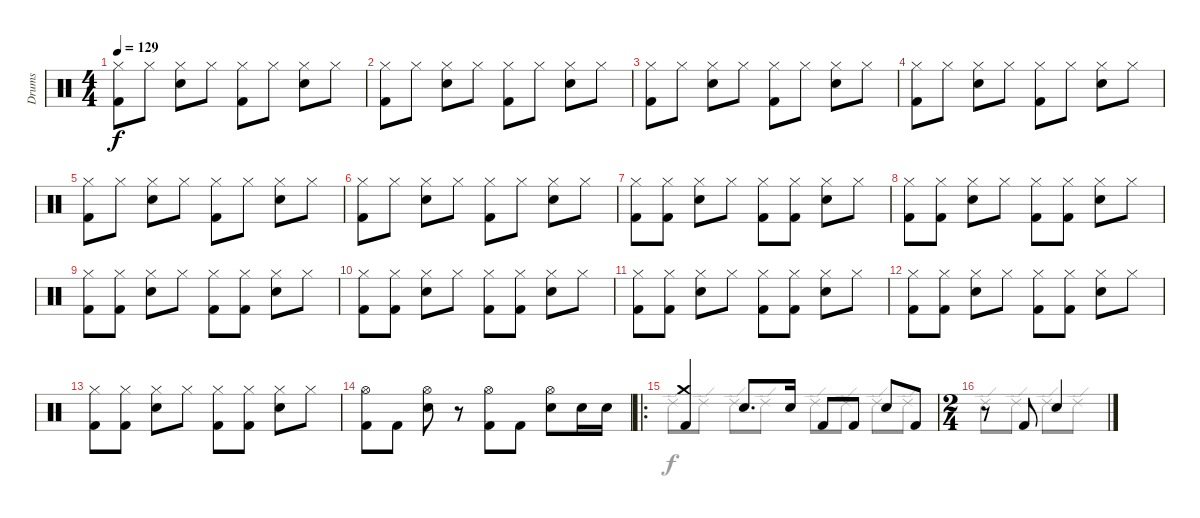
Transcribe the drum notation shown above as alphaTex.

\track ("Drums" "Drums") {instrument percussion}
\staff {score}
\articulation defaults
\voice
\ts (4 4)
\tempo 129
\clef neutral
\ks c
("Hi-Hat (closed)" "Kick (hit) 2").8{dy f} "Hi-Hat (closed)".8 ("Hi-Hat (closed)" "Snare (hit) 2").8 "Hi-Hat (closed)".8 ("Hi-Hat (closed)" "Kick (hit) 2").8 "Hi-Hat (closed)".8 ("Hi-Hat (closed)" "Snare (hit) 2").8 "Hi-Hat (closed)".8 |
("Hi-Hat (closed)" "Kick (hit) 2").8 "Hi-Hat (closed)".8 ("Hi-Hat (closed)" "Snare (hit) 2").8 "Hi-Hat (closed)".8 ("Hi-Hat (closed)" "Kick (hit) 2").8 "Hi-Hat (closed)".8 ("Hi-Hat (closed)" "Snare (hit) 2").8 "Hi-Hat (closed)".8 |
("Hi-Hat (closed)" "Kick (hit) 2").8 "Hi-Hat (closed)".8 ("Hi-Hat (closed)" "Snare (hit) 2").8 "Hi-Hat (closed)".8 ("Hi-Hat (closed)" "Kick (hit) 2").8 "Hi-Hat (closed)".8 ("Hi-Hat (closed)" "Snare (hit) 2").8 "Hi-Hat (closed)".8 |
("Hi-Hat (closed)" "Kick (hit) 2").8 "Hi-Hat (closed)".8 ("Hi-Hat (closed)" "Snare (hit) 2").8 "Hi-Hat (closed)".8 ("Hi-Hat (closed)" "Kick (hit) 2").8 "Hi-Hat (closed)".8 ("Hi-Hat (closed)" "Snare (hit) 2").8 "Hi-Hat (closed)".8 |
("Hi-Hat (closed)" "Kick (hit) 2").8 "Hi-Hat (closed)".8 ("Hi-Hat (closed)" "Snare (hit) 2").8 "Hi-Hat (closed)".8 ("Hi-Hat (closed)" "Kick (hit) 2").8 "Hi-Hat (closed)".8 ("Hi-Hat (closed)" "Snare (hit) 2").8 "Hi-Hat (closed)".8 |
("Hi-Hat (closed)" "Kick (hit) 2").8 "Hi-Hat (closed)".8 ("Hi-Hat (closed)" "Snare (hit) 2").8 "Hi-Hat (closed)".8 ("Hi-Hat (closed)" "Kick (hit) 2").8 "Hi-Hat (closed)".8 ("Hi-Hat (closed)" "Snare (hit) 2").8 "Hi-Hat (closed)".8 |
("Hi-Hat (closed)" "Kick (hit) 2").8 ("Hi-Hat (closed)" "Kick (hit) 2").8 ("Hi-Hat (closed)" "Snare (hit) 2").8 "Hi-Hat (closed)".8 ("Hi-Hat (closed)" "Kick (hit) 2").8 ("Hi-Hat (closed)" "Kick (hit) 2").8 ("Hi-Hat (closed)" "Snare (hit) 2").8 "Hi-Hat (closed)".8 |
("Hi-Hat (closed)" "Kick (hit) 2").8 ("Hi-Hat (closed)" "Kick (hit) 2").8 ("Hi-Hat (closed)" "Snare (hit) 2").8 "Hi-Hat (closed)".8 ("Hi-Hat (closed)" "Kick (hit) 2").8 ("Hi-Hat (closed)" "Kick (hit) 2").8 ("Hi-Hat (closed)" "Snare (hit) 2").8 "Hi-Hat (closed)".8 |
("Hi-Hat (closed)" "Kick (hit) 2").8 ("Hi-Hat (closed)" "Kick (hit) 2").8 ("Hi-Hat (closed)" "Snare (hit) 2").8 "Hi-Hat (closed)".8 ("Hi-Hat (closed)" "Kick (hit) 2").8 ("Hi-Hat (closed)" "Kick (hit) 2").8 ("Hi-Hat (closed)" "Snare (hit) 2").8 "Hi-Hat (closed)".8 |
("Hi-Hat (closed)" "Kick (hit) 2").8 ("Hi-Hat (closed)" "Kick (hit) 2").8 ("Hi-Hat (closed)" "Snare (hit) 2").8 "Hi-Hat (closed)".8 ("Hi-Hat (closed)" "Kick (hit) 2").8 ("Hi-Hat (closed)" "Kick (hit) 2").8 ("Hi-Hat (closed)" "Snare (hit) 2").8 "Hi-Hat (closed)".8 |
("Hi-Hat (closed)" "Kick (hit) 2").8 ("Hi-Hat (closed)" "Kick (hit) 2").8 ("Hi-Hat (closed)" "Snare (hit) 2").8 "Hi-Hat (closed)".8 ("Hi-Hat (closed)" "Kick (hit) 2").8 ("Hi-Hat (closed)" "Kick (hit) 2").8 ("Hi-Hat (closed)" "Snare (hit) 2").8 "Hi-Hat (closed)".8 |
("Hi-Hat (closed)" "Kick (hit) 2").8 ("Hi-Hat (closed)" "Kick (hit) 2").8 ("Hi-Hat (closed)" "Snare (hit) 2").8 "Hi-Hat (closed)".8 ("Hi-Hat (closed)" "Kick (hit) 2").8 ("Hi-Hat (closed)" "Kick (hit) 2").8 ("Hi-Hat (closed)" "Snare (hit) 2").8 "Hi-Hat (closed)".8 |
("Hi-Hat (closed)" "Kick (hit) 2").8 ("Hi-Hat (closed)" "Kick (hit) 2").8 ("Hi-Hat (closed)" "Snare (hit) 2").8 "Hi-Hat (closed)".8 ("Hi-Hat (closed)" "Kick (hit) 2").8 ("Hi-Hat (closed)" "Kick (hit) 2").8 ("Hi-Hat (closed)" "Snare (hit) 2").8 "Hi-Hat (closed)".8 |
("Hi-Hat (open)" "Kick (hit) 2").8 "Kick (hit) 2".8 ("Hi-Hat (open)" "Snare (hit) 2").8 r.8 ("Hi-Hat (open)" "Kick (hit) 2").8 "Kick (hit) 2".8 ("Hi-Hat (open)" "Snare (hit) 2").8 "Snare (hit) 2".16 "Snare (hit) 2".16 |
\ro
("Crash medium (hit)" "Kick (hit) 2").4 "Snare (hit) 2".8{d} "Snare (hit) 2".16 "Kick (hit) 2".8 "Kick (hit) 2".8 "Snare (hit) 2".8 "Kick (hit) 2".8 |
\ts (2 4)
r.8 "Kick (hit) 2".8 "Snare (hit) 2".4
\voice
\clef neutral
\ottava regular
\simile none
\ks c
|
|
|
|
|
|
|
|
|
|
|
|
|
|
"Ride (edge) 2".8 "Ride (edge) 2".8 "Ride (edge) 2".8 "Ride (edge) 2".8 "Ride (edge) 2".8 "Ride (edge) 2".8 "Ride (edge) 2".8 "Ride (edge) 2".8 |
"Ride (edge) 2".8 "Ride (edge) 2".8 "Ride (edge) 2".8 "Ride (edge) 2".8
